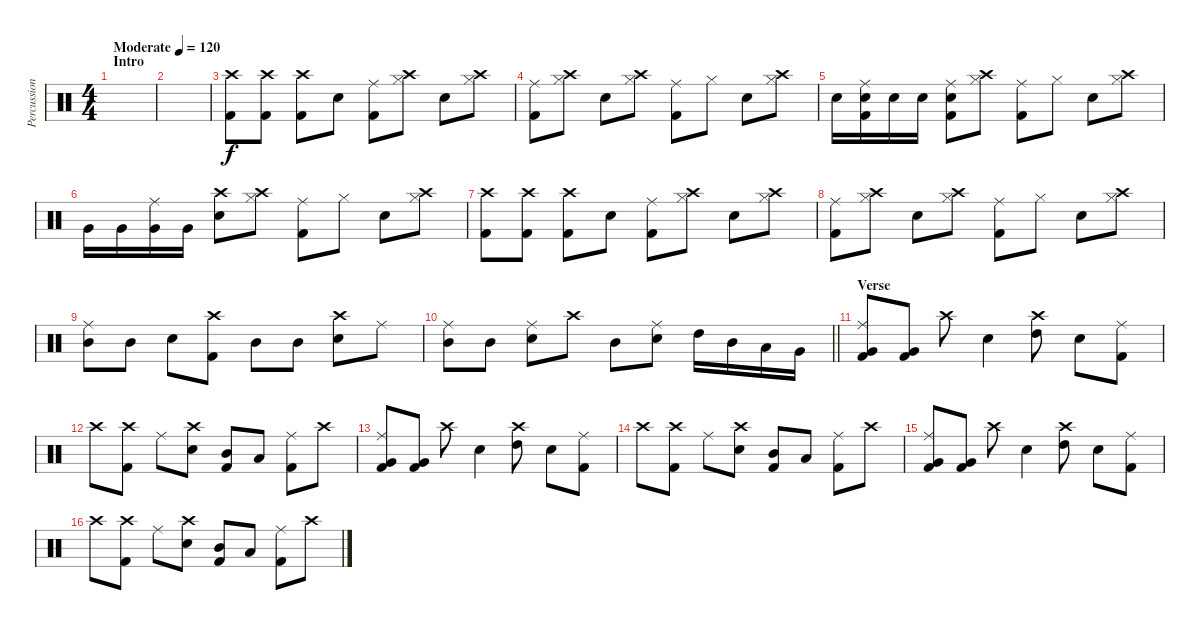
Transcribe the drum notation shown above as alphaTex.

\track ("Percussion" "Percussion") {instrument percussion}
\staff {score}
\articulation defaults
\ts (4 4)
\section ("" "Intro")
\tempo (120 "Moderate")
\clef neutral
\ks c
|
|
("Crash high (hit)" "Kick (hit) 2").8 ("Crash high (hit)" "Kick (hit) 2").8 ("Crash high (hit)" "Kick (hit) 2").8 "Electric Snare (hit)".8 ("Ride (middle)" "Kick (hit) 2").8 ("Crash high (hit)" "Hi-Hat (closed)").8 "Electric Snare (hit)".8 ("Crash high (hit)" "Hi-Hat (closed)").8 |
("Ride (middle)" "Kick (hit) 2").8 ("Crash high (hit)" "Hi-Hat (closed)").8 "Electric Snare (hit)".8 ("Crash high (hit)" "Hi-Hat (closed)").8 ("Ride (middle)" "Kick (hit) 2").8 "Hi-Hat (closed)".8 "Electric Snare (hit)".8 ("Crash high (hit)" "Hi-Hat (closed)").8 |
"Electric Snare (hit)".16 ("Ride (middle)" "Electric Snare (hit)" "Kick (hit) 2").16 "Electric Snare (hit)".16 "Electric Snare (hit)".16 ("Ride (middle)" "Electric Snare (hit)" "Kick (hit) 2").8 ("Crash high (hit)" "Hi-Hat (closed)").8 ("Ride (middle)" "Kick (hit) 2").8 "Hi-Hat (closed)".8 "Electric Snare (hit)".8 ("Crash high (hit)" "Hi-Hat (closed)").8 |
"Very Low Tom (hit)".16 "Very Low Tom (hit)".16 ("Ride (middle)" "Very Low Tom (hit)").16 "Very Low Tom (hit)".16 ("Crash high (hit)" "Electric Snare (hit)").8 ("Crash high (hit)" "Hi-Hat (closed)").8 ("Ride (middle)" "Kick (hit) 2").8 "Hi-Hat (closed)".8 "Electric Snare (hit)".8 ("Crash high (hit)" "Hi-Hat (closed)").8 |
("Crash high (hit)" "Kick (hit) 2").8 ("Crash high (hit)" "Kick (hit) 2").8 ("Crash high (hit)" "Kick (hit) 2").8 "Electric Snare (hit)".8 ("Ride (middle)" "Kick (hit) 2").8 ("Crash high (hit)" "Hi-Hat (closed)").8 "Electric Snare (hit)".8 ("Crash high (hit)" "Hi-Hat (closed)").8 |
("Ride (middle)" "Kick (hit) 2").8 ("Crash high (hit)" "Hi-Hat (closed)").8 "Electric Snare (hit)".8 ("Crash high (hit)" "Hi-Hat (closed)").8 ("Ride (middle)" "Kick (hit) 2").8 "Hi-Hat (closed)".8 "Electric Snare (hit)".8 ("Crash high (hit)" "Hi-Hat (closed)").8 |
("Ride (middle)" "Mid Tom (hit)").8 "Mid Tom (hit)".8 "Electric Snare (hit)".8 ("Crash high (hit)" "Kick (hit) 2").8 "Mid Tom (hit)".8 "Mid Tom (hit)".8 ("Crash high (hit)" "Electric Snare (hit)").8 "Ride (middle)".8 |
\barLineRight lightlight
("Ride (middle)" "Mid Tom (hit)").8 "Mid Tom (hit)".8 ("Ride (middle)" "Electric Snare (hit)").8 "Crash high (hit)".8 "Mid Tom (hit)".8 ("Ride (middle)" "Electric Snare (hit)").8 "High Tom (hit)".16 "Mid Tom (hit)".16 "Low Tom (hit)".16 "Very Low Tom (hit)".16 |
\section ("" "Verse")
("Ride (middle)" "Very Low Tom (hit)" "Kick (hit) 2").8 ("Very Low Tom (hit)" "Kick (hit) 2").8 "Crash high (hit)".8 "Electric Snare (hit)".4 ("Crash high (hit)" "High Tom (hit)").8 "Electric Snare (hit)".8 ("Ride (middle)" "Kick (hit) 2").8 |
"Crash high (hit)".8 ("Crash high (hit)" "Kick (hit) 2").8 "Ride (middle)".8 ("Crash high (hit)" "Electric Snare (hit)").8 ("Mid Tom (hit)" "Kick (hit) 2").8 "Low Tom (hit)".8 ("Ride (middle)" "Kick (hit) 2").8 "Crash high (hit)".8 |
("Ride (middle)" "Very Low Tom (hit)" "Kick (hit) 2").8 ("Very Low Tom (hit)" "Kick (hit) 2").8 "Crash high (hit)".8 "Electric Snare (hit)".4 ("Crash high (hit)" "High Tom (hit)").8 "Electric Snare (hit)".8 ("Ride (middle)" "Kick (hit) 2").8 |
"Crash high (hit)".8 ("Crash high (hit)" "Kick (hit) 2").8 "Ride (middle)".8 ("Crash high (hit)" "Electric Snare (hit)").8 ("Mid Tom (hit)" "Kick (hit) 2").8 "Low Tom (hit)".8 ("Ride (middle)" "Kick (hit) 2").8 "Crash high (hit)".8 |
("Ride (middle)" "Very Low Tom (hit)" "Kick (hit) 2").8 ("Very Low Tom (hit)" "Kick (hit) 2").8 "Crash high (hit)".8 "Electric Snare (hit)".4 ("Crash high (hit)" "High Tom (hit)").8 "Electric Snare (hit)".8 ("Ride (middle)" "Kick (hit) 2").8 |
"Crash high (hit)".8 ("Crash high (hit)" "Kick (hit) 2").8 "Ride (middle)".8 ("Crash high (hit)" "Electric Snare (hit)").8 ("Mid Tom (hit)" "Kick (hit) 2").8 "Low Tom (hit)".8 ("Ride (middle)" "Kick (hit) 2").8 "Crash high (hit)".8
